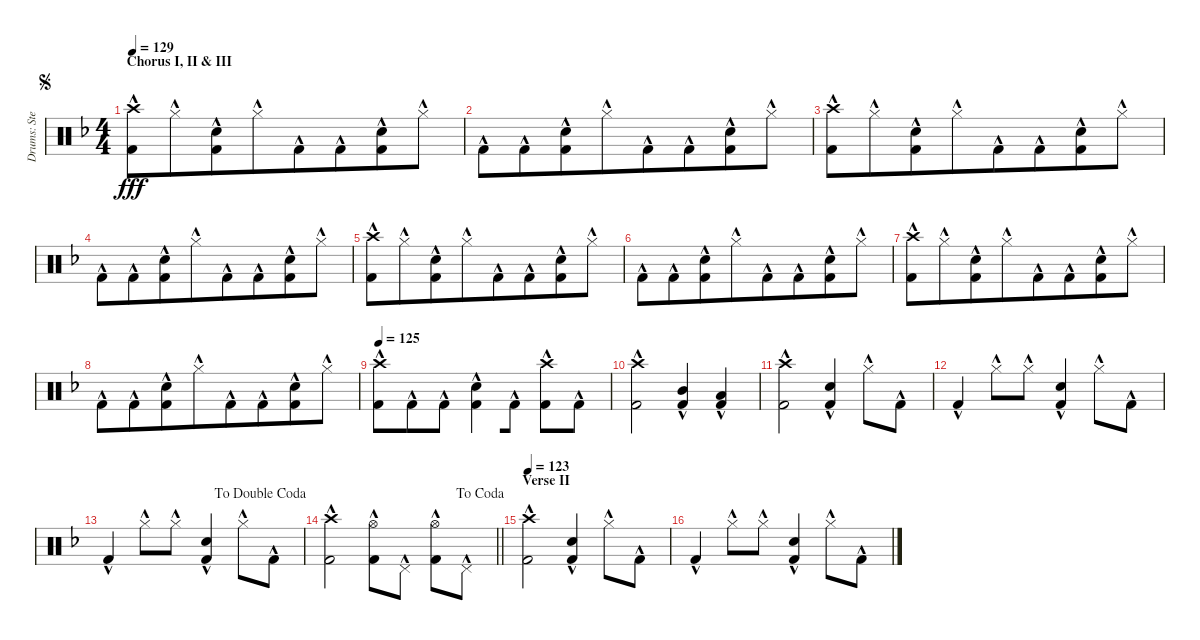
\track ("Drums: Steve" "Drums: Ste") {instrument percussion}
\staff {score}
\articulation defaults
\ts (4 4)
\section ("" "Chorus I, II & III")
\jump segno
\tempo 129
\clef neutral
\ks f
("Crash high (hit)"{hac} "Kick (hit) 2"{hac}).8{dy fff} "Hi-Hat (closed)"{hac}.8{beam merge} ("Electric Snare (hit)"{hac} "Kick (hit) 2"{hac}).8{beam merge} "Hi-Hat (closed)"{hac}.8{beam merge} "Kick (hit) 2"{hac}.8{beam merge} "Kick (hit) 2"{hac}.8{beam merge} ("Electric Snare (hit)"{hac} "Kick (hit) 2"{hac}).8 "Hi-Hat (closed)"{hac}.8 |
"Kick (hit) 2"{hac}.8{beam merge} "Kick (hit) 2"{hac}.8{beam merge} ("Electric Snare (hit)"{hac} "Kick (hit) 2"{hac}).8 "Hi-Hat (closed)"{hac}.8{beam merge} "Kick (hit) 2"{hac}.8{beam merge} "Kick (hit) 2"{hac}.8{beam merge} ("Electric Snare (hit)"{hac} "Kick (hit) 2"{hac}).8 "Hi-Hat (closed)"{hac}.8 |
("Crash high (hit)"{hac} "Kick (hit) 2"{hac}).8 "Hi-Hat (closed)"{hac}.8{beam merge} ("Electric Snare (hit)"{hac} "Kick (hit) 2"{hac}).8{beam merge} "Hi-Hat (closed)"{hac}.8{beam merge} "Kick (hit) 2"{hac}.8{beam merge} "Kick (hit) 2"{hac}.8{beam merge} ("Electric Snare (hit)"{hac} "Kick (hit) 2"{hac}).8 "Hi-Hat (closed)"{hac}.8 |
"Kick (hit) 2"{hac}.8{beam merge} "Kick (hit) 2"{hac}.8{beam merge} ("Electric Snare (hit)"{hac} "Kick (hit) 2"{hac}).8 "Hi-Hat (closed)"{hac}.8{beam merge} "Kick (hit) 2"{hac}.8{beam merge} "Kick (hit) 2"{hac}.8{beam merge} ("Electric Snare (hit)"{hac} "Kick (hit) 2"{hac}).8 "Hi-Hat (closed)"{hac}.8 |
("Crash high (hit)"{hac} "Kick (hit) 2"{hac}).8 "Hi-Hat (closed)"{hac}.8{beam merge} ("Electric Snare (hit)"{hac} "Kick (hit) 2"{hac}).8{beam merge} "Hi-Hat (closed)"{hac}.8{beam merge} "Kick (hit) 2"{hac}.8{beam merge} "Kick (hit) 2"{hac}.8{beam merge} ("Electric Snare (hit)"{hac} "Kick (hit) 2"{hac}).8 "Hi-Hat (closed)"{hac}.8 |
"Kick (hit) 2"{hac}.8{beam merge} "Kick (hit) 2"{hac}.8{beam merge} ("Electric Snare (hit)"{hac} "Kick (hit) 2"{hac}).8 "Hi-Hat (closed)"{hac}.8{beam merge} "Kick (hit) 2"{hac}.8{beam merge} "Kick (hit) 2"{hac}.8{beam merge} ("Electric Snare (hit)"{hac} "Kick (hit) 2"{hac}).8 "Hi-Hat (closed)"{hac}.8 |
("Crash high (hit)"{hac} "Kick (hit) 2"{hac}).8 "Hi-Hat (closed)"{hac}.8{beam merge} ("Electric Snare (hit)"{hac} "Kick (hit) 2"{hac}).8{beam merge} "Hi-Hat (closed)"{hac}.8{beam merge} "Kick (hit) 2"{hac}.8{beam merge} "Kick (hit) 2"{hac}.8{beam merge} ("Electric Snare (hit)"{hac} "Kick (hit) 2"{hac}).8 "Hi-Hat (closed)"{hac}.8 |
"Kick (hit) 2"{hac}.8{beam merge} "Kick (hit) 2"{hac}.8{beam merge} ("Electric Snare (hit)"{hac} "Kick (hit) 2"{hac}).8 "Hi-Hat (closed)"{hac}.8{beam merge} "Kick (hit) 2"{hac}.8{beam merge} "Kick (hit) 2"{hac}.8{beam merge} ("Electric Snare (hit)"{hac} "Kick (hit) 2"{hac}).8 "Hi-Hat (closed)"{hac}.8 |
\tempo 125
("Crash high (hit)"{hac} "Kick (hit) 2"{hac}).8{beam merge} "Kick (hit) 2"{hac}.8{beam merge} "Kick (hit) 2"{hac}.8{beam merge} ("Electric Snare (hit)"{hac} "Kick (hit) 2"{hac}).4{beam merge} "Kick (hit) 2"{hac}.8 ("Crash high (hit)"{hac} "Kick (hit) 2"{hac}).8{beam merge} "Kick (hit) 2"{hac}.8 |
("Crash high (hit)"{hac} "Kick (hit) 2"{hac}).2 ("Mid Tom (hit)"{hac} "Kick (hit) 2"{hac}).4 ("Low Tom (hit)"{hac} "Kick (hit) 2"{hac}).4 |
("Crash high (hit)"{hac} "Kick (hit) 2"{hac}).2 ("Electric Snare (hit)"{hac} "Kick (hit) 2"{hac}).4 "Hi-Hat (closed)"{hac}.8 "Kick (hit) 2"{hac}.8 |
"Kick (hit) 2"{hac}.4 "Hi-Hat (closed)"{hac}.8 "Hi-Hat (closed)"{hac}.8 ("Electric Snare (hit)"{hac} "Kick (hit) 2"{hac}).4 "Hi-Hat (closed)"{hac}.8 "Kick (hit) 2"{hac}.8 |
\jump dadoublecoda "Kick (hit) 2"{hac}.4 "Hi-Hat (closed)"{hac}.8 "Hi-Hat (closed)"{hac}.8
("Electric Snare (hit)"{hac} "Kick (hit) 2"{hac}).4 "Hi-Hat (closed)"{hac}.8 "Kick (hit) 2"{hac}.8 |
\jump dacoda
\barLineRight lightlight
("Crash high (hit)"{hac} "Kick (hit) 2"{hac}).2 ("Hi-Hat (open)"{hac} "Kick (hit) 2"{hac}).8 "Pedal Hi-Hat (hit)"{hac}.8 ("Hi-Hat (open)"{hac} "Kick (hit) 2"{hac}).8 "Pedal Hi-Hat (hit)"{hac}.8 |
\section ("" "Verse II")
\tempo 123
("Crash high (hit)"{hac} "Kick (hit) 2"{hac}).2 ("Electric Snare (hit)"{hac} "Kick (hit) 2"{hac}).4 "Hi-Hat (closed)"{hac}.8 "Kick (hit) 2"{hac}.8 |
"Kick (hit) 2"{hac}.4 "Hi-Hat (closed)"{hac}.8 "Hi-Hat (closed)"{hac}.8 ("Electric Snare (hit)"{hac} "Kick (hit) 2"{hac}).4 "Hi-Hat (closed)"{hac}.8 "Kick (hit) 2"{hac}.8
